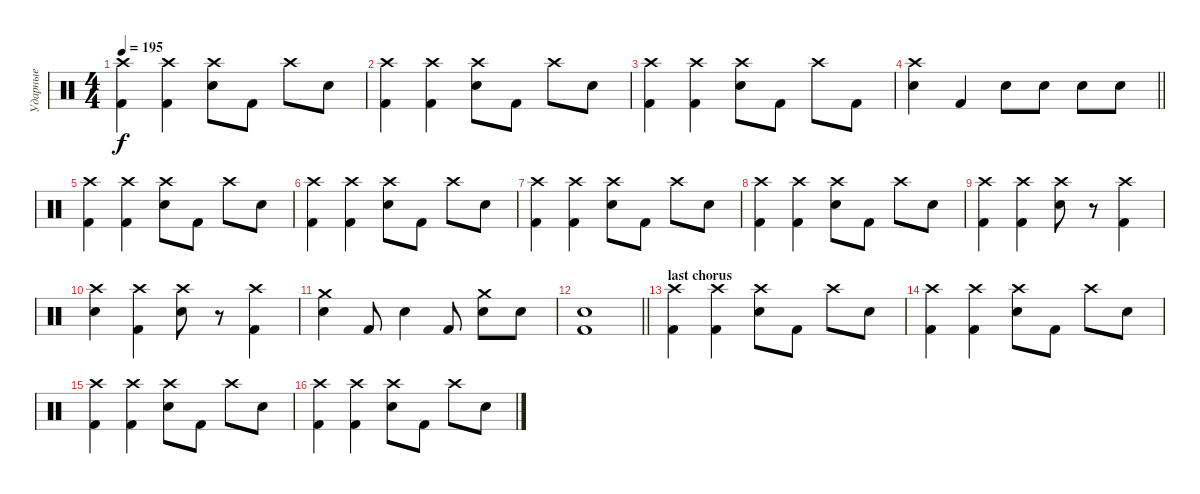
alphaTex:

\track ("Ударные" "Ударные") {instrument percussion}
\staff {score}
\articulation defaults
\ts (4 4)
\tempo 195
\clef neutral
\ks c
("Crash high (hit)" "Kick (hit) 2").4{dy f} ("Crash high (hit)" "Kick (hit) 2").4 ("Crash high (hit)" "Electric Snare (hit)").8 "Kick (hit) 2".8 "Crash high (hit)".8 "Electric Snare (hit)".8 |
("Crash high (hit)" "Kick (hit) 2").4 ("Crash high (hit)" "Kick (hit) 2").4 ("Crash high (hit)" "Electric Snare (hit)").8 "Kick (hit) 2".8 "Crash high (hit)".8 "Electric Snare (hit)".8 |
("Crash high (hit)" "Kick (hit) 2").4 ("Crash high (hit)" "Kick (hit) 2").4 ("Crash high (hit)" "Electric Snare (hit)").8 "Kick (hit) 2".8 "Crash high (hit)".8 "Kick (hit) 2".8 |
\barLineRight lightlight
("Crash high (hit)" "Electric Snare (hit)").4 "Kick (hit) 2".4 "Electric Snare (hit)".8 "Electric Snare (hit)".8 "Electric Snare (hit)".8 "Electric Snare (hit)".8 |
("Crash high (hit)" "Kick (hit) 2").4 ("Crash high (hit)" "Kick (hit) 2").4 ("Crash high (hit)" "Electric Snare (hit)").8 "Kick (hit) 2".8 "Crash high (hit)".8 "Electric Snare (hit)".8 |
("Crash high (hit)" "Kick (hit) 2").4 ("Crash high (hit)" "Kick (hit) 2").4 ("Crash high (hit)" "Electric Snare (hit)").8 "Kick (hit) 2".8 "Crash high (hit)".8 "Electric Snare (hit)".8 |
("Crash high (hit)" "Kick (hit) 2").4 ("Crash high (hit)" "Kick (hit) 2").4 ("Crash high (hit)" "Electric Snare (hit)").8 "Kick (hit) 2".8 "Crash high (hit)".8 "Electric Snare (hit)".8 |
("Crash high (hit)" "Kick (hit) 2").4 ("Crash high (hit)" "Kick (hit) 2").4 ("Crash high (hit)" "Electric Snare (hit)").8 "Kick (hit) 2".8 "Crash high (hit)".8 "Electric Snare (hit)".8 |
("Crash high (hit)" "Kick (hit) 2").4 ("Crash high (hit)" "Kick (hit) 2").4 ("Crash high (hit)" "Electric Snare (hit)").8 r.8 ("Crash high (hit)" "Kick (hit) 2").4 |
("Crash high (hit)" "Electric Snare (hit)").4 ("Crash high (hit)" "Kick (hit) 2").4 ("Crash high (hit)" "Electric Snare (hit)").8 r.8 ("Crash high (hit)" "Kick (hit) 2").4 |
("Crash medium (hit)" "Electric Snare (hit)").4 "Kick (hit) 2".8 "Electric Snare (hit)".4 "Kick (hit) 2".8 ("Crash medium (hit)" "Electric Snare (hit)").8 "Electric Snare (hit)".8 |
\barLineRight lightlight
("Electric Snare (hit)" "Kick (hit) 2").1 |
\section ("" "last chorus")
("Crash high (hit)" "Kick (hit) 2").4 ("Crash high (hit)" "Kick (hit) 2").4 ("Crash high (hit)" "Electric Snare (hit)").8 "Kick (hit) 2".8 "Crash high (hit)".8 "Electric Snare (hit)".8 |
("Crash high (hit)" "Kick (hit) 2").4 ("Crash high (hit)" "Kick (hit) 2").4 ("Crash high (hit)" "Electric Snare (hit)").8 "Kick (hit) 2".8 "Crash high (hit)".8 "Electric Snare (hit)".8 |
("Crash high (hit)" "Kick (hit) 2").4 ("Crash high (hit)" "Kick (hit) 2").4 ("Crash high (hit)" "Electric Snare (hit)").8 "Kick (hit) 2".8 "Crash high (hit)".8 "Electric Snare (hit)".8 |
("Crash high (hit)" "Kick (hit) 2").4 ("Crash high (hit)" "Kick (hit) 2").4 ("Crash high (hit)" "Electric Snare (hit)").8 "Kick (hit) 2".8 "Crash high (hit)".8 "Electric Snare (hit)".8
